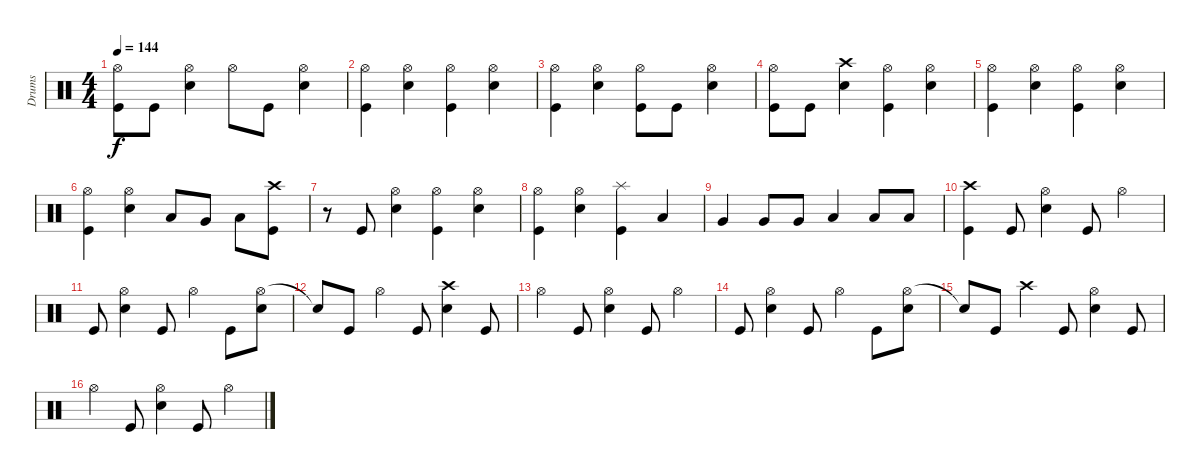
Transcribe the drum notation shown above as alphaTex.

\track ("Drums" "Drums") {instrument percussion}
\staff {score}
\articulation defaults
\ts (4 4)
\tempo 144
\clef neutral
\ks c
("Hi-Hat (open)" "Kick (hit)").8{dy f} "Kick (hit)".8 ("Hi-Hat (open)" "Snare (hit) 2").4 "Hi-Hat (open)".8 "Kick (hit)".8 ("Hi-Hat (open)" "Snare (hit) 2").4 |
("Hi-Hat (open)" "Kick (hit)").4 ("Hi-Hat (open)" "Snare (hit) 2").4 ("Hi-Hat (open)" "Kick (hit)").4 ("Hi-Hat (open)" "Snare (hit) 2").4 |
("Hi-Hat (open)" "Kick (hit)").4 ("Hi-Hat (open)" "Snare (hit) 2").4 ("Hi-Hat (open)" "Kick (hit)").8 "Kick (hit)".8 ("Hi-Hat (open)" "Snare (hit) 2").4 |
("Hi-Hat (open)" "Kick (hit)").8 "Kick (hit)".8 ("Crash high (hit)" "Snare (hit) 2").4 ("Hi-Hat (open)" "Kick (hit)").4 ("Hi-Hat (open)" "Snare (hit) 2").4 |
("Hi-Hat (open)" "Kick (hit)").4 ("Hi-Hat (open)" "Snare (hit) 2").4 ("Hi-Hat (open)" "Kick (hit)").4 ("Hi-Hat (open)" "Snare (hit) 2").4 |
("Hi-Hat (open)" "Kick (hit)").4 ("Hi-Hat (open)" "Snare (hit) 2").4 "Low Tom (hit)".8 "Very Low Tom (hit)".8 "Low Floor Tom (hit)".8 ("Crash high (hit)" "Kick (hit)").8 |
r.8 "Kick (hit)".8 ("Hi-Hat (open)" "Snare (hit) 2").4 ("Hi-Hat (open)" "Kick (hit)").4 ("Hi-Hat (open)" "Snare (hit) 2").4 |
("Hi-Hat (open)" "Kick (hit)").4 ("Hi-Hat (open)" "Snare (hit) 2").4 ("Splash (hit)" "Kick (hit)").4 "Low Tom (hit)".4 |
"Very Low Tom (hit)".4 "Very Low Tom (hit)".8 "Very Low Tom (hit)".8 "Low Floor Tom (hit)".4 "Low Floor Tom (hit)".8 "Low Floor Tom (hit)".8 |
("Crash high (hit)" "Kick (hit)").4 "Kick (hit)".8 ("Hi-Hat (open)" "Snare (hit) 2").4 "Kick (hit)".8 "Hi-Hat (open)".4 |
"Kick (hit)".8 ("Hi-Hat (open)" "Snare (hit) 2").4 "Kick (hit)".8 "Hi-Hat (open)".4 "Kick (hit)".8 ("Hi-Hat (open)" "Snare (hit) 2").8 |
"Snare (hit)"{t}.8 "Kick (hit)".8 "Hi-Hat (open)".4 "Kick (hit)".8 ("Crash high (hit)" "Snare (hit) 2").4 "Kick (hit)".8 |
"Hi-Hat (open)".4 "Kick (hit)".8 ("Hi-Hat (open)" "Snare (hit) 2").4 "Kick (hit)".8 "Hi-Hat (open)".4 |
"Kick (hit)".8 ("Hi-Hat (open)" "Snare (hit) 2").4 "Kick (hit)".8 "Hi-Hat (open)".4 "Kick (hit)".8 ("Hi-Hat (open)" "Snare (hit) 2").8 |
"Snare (hit)"{t}.8 "Kick (hit)".8 "Crash high (hit)".4 "Kick (hit)".8 ("Hi-Hat (open)" "Snare (hit) 2").4 "Kick (hit)".8 |
"Hi-Hat (open)".4 "Kick (hit)".8 ("Hi-Hat (open)" "Snare (hit) 2").4 "Kick (hit)".8 "Hi-Hat (open)".4
